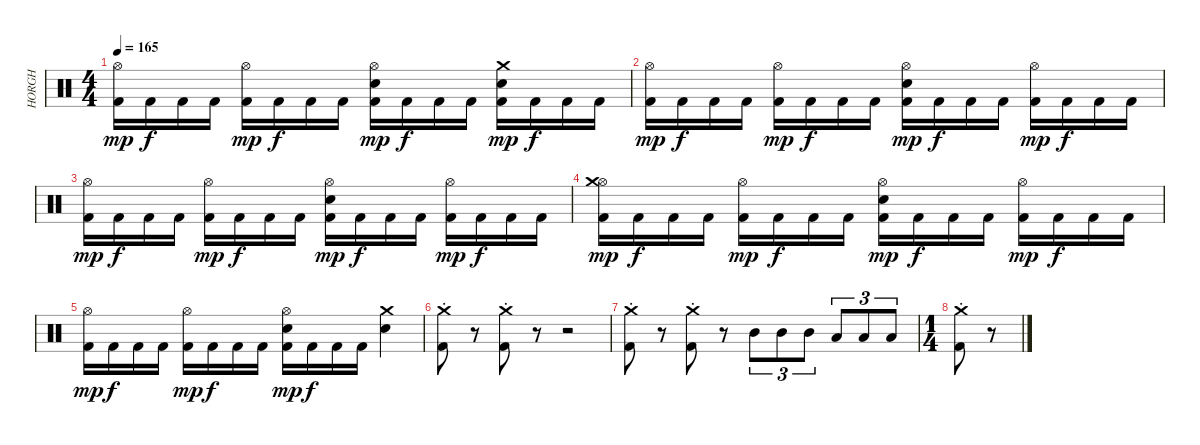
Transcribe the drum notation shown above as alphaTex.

\track ("HORGH" "HORGH") {instrument percussion}
\staff {score}
\articulation defaults
\ts (4 4)
\tempo 165
\clef neutral
\ks c
("Hi-Hat (open)" "Kick (hit) 2").16{dy mp} "Kick (hit) 2".16{dy f} "Kick (hit) 2".16 "Kick (hit) 2".16 ("Hi-Hat (open)" "Kick (hit) 2").16{dy mp} "Kick (hit) 2".16{dy f} "Kick (hit) 2".16 "Kick (hit) 2".16 ("Hi-Hat (open)" "Electric Snare (hit)" "Kick (hit) 2").16{dy mp} "Kick (hit) 2".16{dy f} "Kick (hit) 2".16 "Kick (hit) 2".16 ("Crash medium (hit)" "Electric Snare (hit)" "Kick (hit) 2").16{dy mp} "Kick (hit) 2".16{dy f} "Kick (hit) 2".16 "Kick (hit) 2".16 |
("Hi-Hat (open)" "Kick (hit) 2").16{dy mp} "Kick (hit) 2".16{dy f} "Kick (hit) 2".16 "Kick (hit) 2".16 ("Hi-Hat (open)" "Kick (hit) 2").16{dy mp} "Kick (hit) 2".16{dy f} "Kick (hit) 2".16 "Kick (hit) 2".16 ("Hi-Hat (open)" "Electric Snare (hit)" "Kick (hit) 2").16{dy mp} "Kick (hit) 2".16{dy f} "Kick (hit) 2".16 "Kick (hit) 2".16 ("Hi-Hat (open)" "Kick (hit) 2").16{dy mp} "Kick (hit) 2".16{dy f} "Kick (hit) 2".16 "Kick (hit) 2".16 |
("Hi-Hat (open)" "Kick (hit) 2").16{dy mp} "Kick (hit) 2".16{dy f} "Kick (hit) 2".16 "Kick (hit) 2".16 ("Hi-Hat (open)" "Kick (hit) 2").16{dy mp} "Kick (hit) 2".16{dy f} "Kick (hit) 2".16 "Kick (hit) 2".16 ("Hi-Hat (open)" "Electric Snare (hit)" "Kick (hit) 2").16{dy mp} "Kick (hit) 2".16{dy f} "Kick (hit) 2".16 "Kick (hit) 2".16 ("Hi-Hat (open)" "Kick (hit) 2").16{dy mp} "Kick (hit) 2".16{dy f} "Kick (hit) 2".16 "Kick (hit) 2".16 |
("Hi-Hat (open)" "Crash medium (hit)" "Kick (hit) 2").16{dy mp} "Kick (hit) 2".16{dy f} "Kick (hit) 2".16 "Kick (hit) 2".16 ("Hi-Hat (open)" "Kick (hit) 2").16{dy mp} "Kick (hit) 2".16{dy f} "Kick (hit) 2".16 "Kick (hit) 2".16 ("Hi-Hat (open)" "Electric Snare (hit)" "Kick (hit) 2").16{dy mp} "Kick (hit) 2".16{dy f} "Kick (hit) 2".16 "Kick (hit) 2".16 ("Hi-Hat (open)" "Kick (hit) 2").16{dy mp} "Kick (hit) 2".16{dy f} "Kick (hit) 2".16 "Kick (hit) 2".16 |
("Hi-Hat (open)" "Kick (hit) 2").16{dy mp} "Kick (hit) 2".16{dy f} "Kick (hit) 2".16 "Kick (hit) 2".16 ("Hi-Hat (open)" "Kick (hit) 2").16{dy mp} "Kick (hit) 2".16{dy f} "Kick (hit) 2".16 "Kick (hit) 2".16 ("Hi-Hat (open)" "Electric Snare (hit)" "Kick (hit) 2").16{dy mp} "Kick (hit) 2".16{dy f} "Kick (hit) 2".16 "Kick (hit) 2".16 ("Crash medium (hit)" "Electric Snare (hit)").4 |
("Crash medium (hit)"{st} "Kick (hit) 2").8 r.8 ("Crash medium (hit)"{st} "Kick (hit) 2").8 r.8 r.2 |
("Crash medium (hit)"{st} "Kick (hit) 2").8 r.8 ("Crash medium (hit)"{st} "Kick (hit) 2").8 r.8 "Mid Tom (hit)".8{tu (3 2)} "Mid Tom (hit)".8{tu (3 2)} "Mid Tom (hit)".8{tu (3 2)} "Low Tom (hit)".8{tu (3 2)} "Low Tom (hit)".8{tu (3 2)} "Low Tom (hit)".8{tu (3 2)} |
\ts (1 4)
("Crash medium (hit)"{st} "Kick (hit) 2").8 r.8
